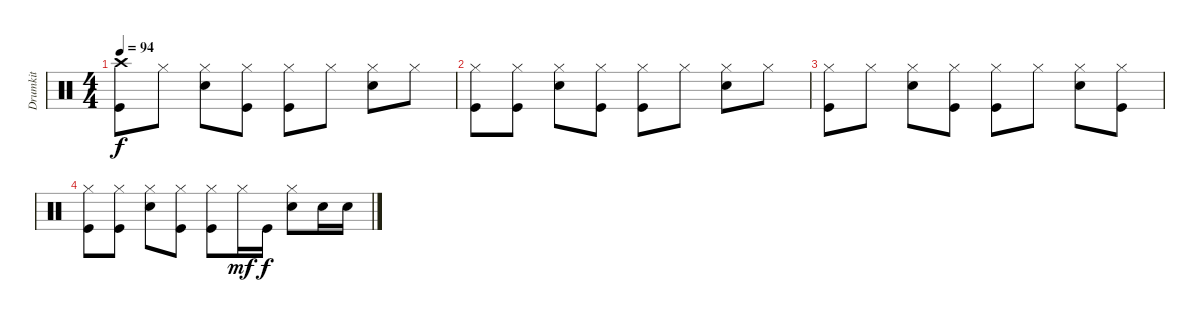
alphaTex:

\track ("Drumkit" "Drumkit") {instrument percussion}
\staff {score}
\articulation defaults
\ts (4 4)
\tempo 94
\clef neutral
\ks c
("Crash high (hit)" "Kick (hit)").8{dy f} "Hi-Hat (closed)".8 ("Hi-Hat (closed)" "Snare (hit) 2").8 ("Hi-Hat (closed)" "Kick (hit)").8 ("Hi-Hat (closed)" "Kick (hit)").8 "Hi-Hat (closed)".8 ("Hi-Hat (closed)" "Snare (hit) 2").8 "Hi-Hat (closed)".8 |
("Hi-Hat (closed)" "Kick (hit)").8 ("Hi-Hat (closed)" "Kick (hit)").8 ("Hi-Hat (closed)" "Snare (hit) 2").8 ("Hi-Hat (closed)" "Kick (hit)").8 ("Hi-Hat (closed)" "Kick (hit)").8 "Hi-Hat (closed)".8 ("Hi-Hat (closed)" "Snare (hit) 2").8 "Hi-Hat (closed)".8 |
("Hi-Hat (closed)" "Kick (hit)").8 "Hi-Hat (closed)".8 ("Hi-Hat (closed)" "Snare (hit) 2").8 ("Hi-Hat (closed)" "Kick (hit)").8 ("Hi-Hat (closed)" "Kick (hit)").8 "Hi-Hat (closed)".8 ("Hi-Hat (closed)" "Snare (hit) 2").8 ("Hi-Hat (closed)" "Kick (hit)").8 |
("Hi-Hat (closed)" "Kick (hit)").8 ("Hi-Hat (closed)" "Kick (hit)").8 ("Hi-Hat (closed)" "Snare (hit) 2").8 ("Hi-Hat (closed)" "Kick (hit)").8 ("Hi-Hat (closed)" "Kick (hit)").8 "Hi-Hat (closed)".16{dy mf} "Kick (hit)".16{dy f} ("Hi-Hat (closed)" "Snare (hit) 2").8 "Snare (hit) 2".16 "Snare (hit) 2".16
